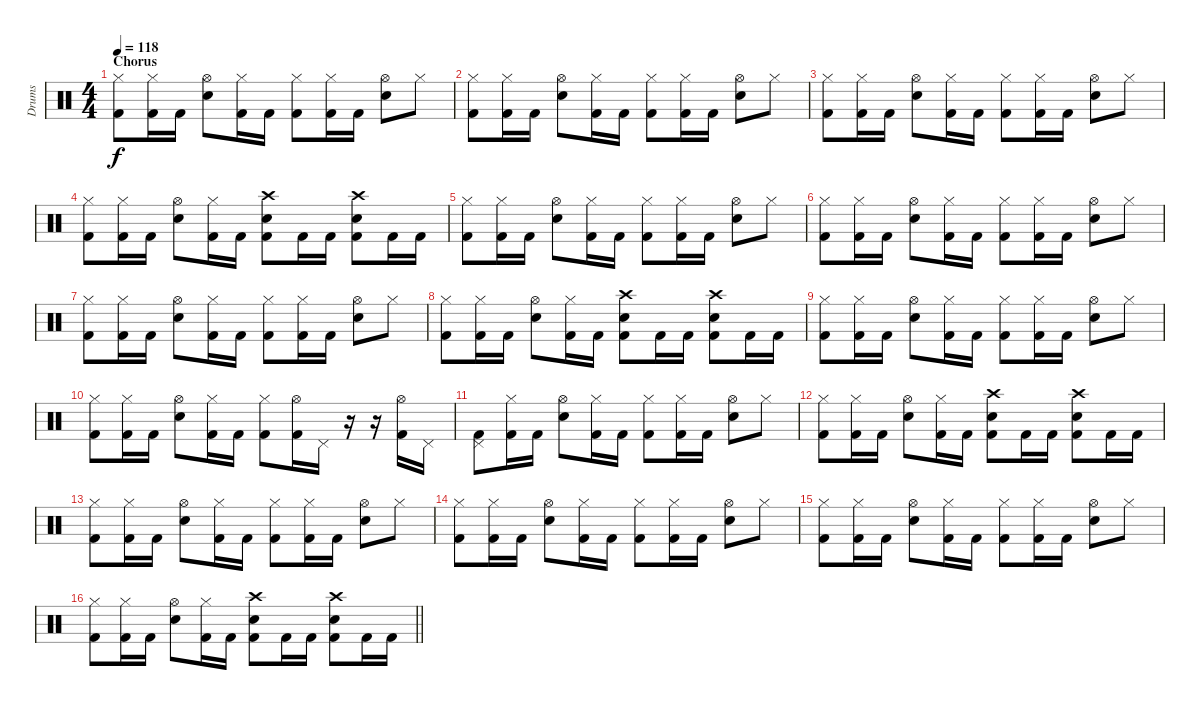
\track ("Drums" "Drums") {solo instrument percussion}
\staff {score}
\articulation defaults
\ts (4 4)
\section ("" "Chorus")
\tempo 118
\clef neutral
\ks c
("Hi-Hat (closed)" "Kick (hit) 2").8{dy f} ("Hi-Hat (closed)" "Kick (hit) 2").16 "Kick (hit) 2".16 ("Hi-Hat (open)" "Snare (hit) 2").8 ("Hi-Hat (closed)" "Kick (hit) 2").16 "Kick (hit) 2".16 ("Hi-Hat (closed)" "Kick (hit) 2").8 ("Hi-Hat (closed)" "Kick (hit) 2").16 "Kick (hit) 2".16 ("Hi-Hat (open)" "Snare (hit) 2").8 "Hi-Hat (closed)".8 |
("Hi-Hat (closed)" "Kick (hit) 2").8 ("Hi-Hat (closed)" "Kick (hit) 2").16 "Kick (hit) 2".16 ("Hi-Hat (open)" "Snare (hit) 2").8 ("Hi-Hat (closed)" "Kick (hit) 2").16 "Kick (hit) 2".16 ("Hi-Hat (closed)" "Kick (hit) 2").8 ("Hi-Hat (closed)" "Kick (hit) 2").16 "Kick (hit) 2".16 ("Hi-Hat (open)" "Snare (hit) 2").8 "Hi-Hat (closed)".8 |
("Hi-Hat (closed)" "Kick (hit) 2").8 ("Hi-Hat (closed)" "Kick (hit) 2").16 "Kick (hit) 2".16 ("Hi-Hat (open)" "Snare (hit) 2").8 ("Hi-Hat (closed)" "Kick (hit) 2").16 "Kick (hit) 2".16 ("Hi-Hat (closed)" "Kick (hit) 2").8 ("Hi-Hat (closed)" "Kick (hit) 2").16 "Kick (hit) 2".16 ("Hi-Hat (open)" "Snare (hit) 2").8 "Hi-Hat (closed)".8 |
("Hi-Hat (closed)" "Kick (hit) 2").8 ("Hi-Hat (closed)" "Kick (hit) 2").16 "Kick (hit) 2".16 ("Hi-Hat (open)" "Snare (hit) 2").8 ("Hi-Hat (closed)" "Kick (hit) 2").16 "Kick (hit) 2".16 ("Crash high (hit)" "Kick (hit) 2" "Snare (hit) 2").8 "Kick (hit) 2".16 "Kick (hit) 2".16 ("Crash high (hit)" "Kick (hit) 2" "Snare (hit) 2").8 "Kick (hit) 2".16 "Kick (hit) 2".16 |
("Hi-Hat (closed)" "Kick (hit) 2").8 ("Hi-Hat (closed)" "Kick (hit) 2").16 "Kick (hit) 2".16 ("Hi-Hat (open)" "Snare (hit) 2").8 ("Hi-Hat (closed)" "Kick (hit) 2").16 "Kick (hit) 2".16 ("Hi-Hat (closed)" "Kick (hit) 2").8 ("Hi-Hat (closed)" "Kick (hit) 2").16 "Kick (hit) 2".16 ("Hi-Hat (open)" "Snare (hit) 2").8 "Hi-Hat (closed)".8 |
("Hi-Hat (closed)" "Kick (hit) 2").8 ("Hi-Hat (closed)" "Kick (hit) 2").16 "Kick (hit) 2".16 ("Hi-Hat (open)" "Snare (hit) 2").8 ("Hi-Hat (closed)" "Kick (hit) 2").16 "Kick (hit) 2".16 ("Hi-Hat (closed)" "Kick (hit) 2").8 ("Hi-Hat (closed)" "Kick (hit) 2").16 "Kick (hit) 2".16 ("Hi-Hat (open)" "Snare (hit) 2").8 "Hi-Hat (closed)".8 |
("Hi-Hat (closed)" "Kick (hit) 2").8 ("Hi-Hat (closed)" "Kick (hit) 2").16 "Kick (hit) 2".16 ("Hi-Hat (open)" "Snare (hit) 2").8 ("Hi-Hat (closed)" "Kick (hit) 2").16 "Kick (hit) 2".16 ("Hi-Hat (closed)" "Kick (hit) 2").8 ("Hi-Hat (closed)" "Kick (hit) 2").16 "Kick (hit) 2".16 ("Hi-Hat (open)" "Snare (hit) 2").8 "Hi-Hat (closed)".8 |
("Hi-Hat (closed)" "Kick (hit) 2").8 ("Hi-Hat (closed)" "Kick (hit) 2").16 "Kick (hit) 2".16 ("Hi-Hat (open)" "Snare (hit) 2").8 ("Hi-Hat (closed)" "Kick (hit) 2").16 "Kick (hit) 2".16 ("Crash high (hit)" "Kick (hit) 2" "Snare (hit) 2").8 "Kick (hit) 2".16 "Kick (hit) 2".16 ("Crash high (hit)" "Kick (hit) 2" "Snare (hit) 2").8 "Kick (hit) 2".16 "Kick (hit) 2".16 |
("Hi-Hat (closed)" "Kick (hit) 2").8 ("Hi-Hat (closed)" "Kick (hit) 2").16 "Kick (hit) 2".16 ("Hi-Hat (open)" "Snare (hit) 2").8 ("Hi-Hat (closed)" "Kick (hit) 2").16 "Kick (hit) 2".16 ("Hi-Hat (closed)" "Kick (hit) 2").8 ("Hi-Hat (closed)" "Kick (hit) 2").16 "Kick (hit) 2".16 ("Hi-Hat (open)" "Snare (hit) 2").8 "Hi-Hat (closed)".8 |
("Hi-Hat (closed)" "Kick (hit) 2").8 ("Hi-Hat (closed)" "Kick (hit) 2").16 "Kick (hit) 2".16 ("Hi-Hat (open)" "Snare (hit) 2").8 ("Hi-Hat (closed)" "Kick (hit) 2").16 "Kick (hit) 2".16 ("Hi-Hat (closed)" "Kick (hit) 2").8 ("Hi-Hat (open)" "Kick (hit) 2").16 "Pedal Hi-Hat (hit)".16 r.16 r.16 ("Hi-Hat (open)" "Kick (hit) 2").16 "Pedal Hi-Hat (hit)".16 |
("Pedal Hi-Hat (hit)" "Kick (hit) 2").8 ("Hi-Hat (closed)" "Kick (hit) 2").16 "Kick (hit) 2".16 ("Hi-Hat (open)" "Snare (hit) 2").8 ("Hi-Hat (closed)" "Kick (hit) 2").16 "Kick (hit) 2".16 ("Hi-Hat (closed)" "Kick (hit) 2").8 ("Hi-Hat (closed)" "Kick (hit) 2").16 "Kick (hit) 2".16 ("Hi-Hat (open)" "Snare (hit) 2").8 "Hi-Hat (closed)".8 |
("Hi-Hat (closed)" "Kick (hit) 2").8 ("Hi-Hat (closed)" "Kick (hit) 2").16 "Kick (hit) 2".16 ("Hi-Hat (open)" "Snare (hit) 2").8 ("Hi-Hat (closed)" "Kick (hit) 2").16 "Kick (hit) 2".16 ("Crash high (hit)" "Kick (hit) 2" "Snare (hit) 2").8 "Kick (hit) 2".16 "Kick (hit) 2".16 ("Crash high (hit)" "Kick (hit) 2" "Snare (hit) 2").8 "Kick (hit) 2".16 "Kick (hit) 2".16 |
("Hi-Hat (closed)" "Kick (hit) 2").8 ("Hi-Hat (closed)" "Kick (hit) 2").16 "Kick (hit) 2".16 ("Hi-Hat (open)" "Snare (hit) 2").8 ("Hi-Hat (closed)" "Kick (hit) 2").16 "Kick (hit) 2".16 ("Hi-Hat (closed)" "Kick (hit) 2").8 ("Hi-Hat (closed)" "Kick (hit) 2").16 "Kick (hit) 2".16 ("Hi-Hat (open)" "Snare (hit) 2").8 "Hi-Hat (closed)".8 |
("Hi-Hat (closed)" "Kick (hit) 2").8 ("Hi-Hat (closed)" "Kick (hit) 2").16 "Kick (hit) 2".16 ("Hi-Hat (open)" "Snare (hit) 2").8 ("Hi-Hat (closed)" "Kick (hit) 2").16 "Kick (hit) 2".16 ("Hi-Hat (closed)" "Kick (hit) 2").8 ("Hi-Hat (closed)" "Kick (hit) 2").16 "Kick (hit) 2".16 ("Hi-Hat (open)" "Snare (hit) 2").8 "Hi-Hat (closed)".8 |
("Hi-Hat (closed)" "Kick (hit) 2").8 ("Hi-Hat (closed)" "Kick (hit) 2").16 "Kick (hit) 2".16 ("Hi-Hat (open)" "Snare (hit) 2").8 ("Hi-Hat (closed)" "Kick (hit) 2").16 "Kick (hit) 2".16 ("Hi-Hat (closed)" "Kick (hit) 2").8 ("Hi-Hat (closed)" "Kick (hit) 2").16 "Kick (hit) 2".16 ("Hi-Hat (open)" "Snare (hit) 2").8 "Hi-Hat (closed)".8 |
\barLineRight lightlight
("Hi-Hat (closed)" "Kick (hit) 2").8 ("Hi-Hat (closed)" "Kick (hit) 2").16 "Kick (hit) 2".16 ("Hi-Hat (open)" "Snare (hit) 2").8 ("Hi-Hat (closed)" "Kick (hit) 2").16 "Kick (hit) 2".16 ("Crash high (hit)" "Kick (hit) 2" "Snare (hit) 2").8 "Kick (hit) 2".16 "Kick (hit) 2".16 ("Crash high (hit)" "Kick (hit) 2" "Snare (hit) 2").8 "Kick (hit) 2".16 "Kick (hit) 2".16
